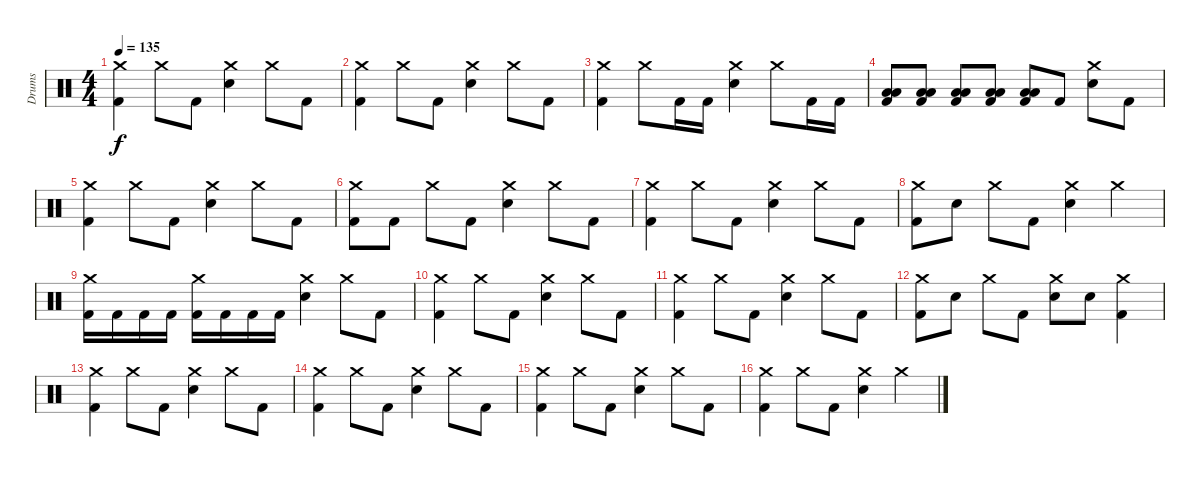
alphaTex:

\track ("Drums" "Drums") {instrument percussion}
\staff {score}
\articulation defaults
\ts (4 4)
\tempo 135
\clef neutral
\ks c
("Crash medium (hit)" "Kick (hit) 2").4{dy f} "Crash medium (hit)".8 "Kick (hit) 2".8 ("Crash medium (hit)" "Electric Snare (hit)").4 "Crash medium (hit)".8 "Kick (hit) 2".8 |
("Crash medium (hit)" "Kick (hit) 2").4 "Crash medium (hit)".8 "Kick (hit) 2".8 ("Crash medium (hit)" "Electric Snare (hit)").4 "Crash medium (hit)".8 "Kick (hit) 2".8 |
("Crash medium (hit)" "Kick (hit) 2").4 "Crash medium (hit)".8 "Kick (hit) 2".16 "Kick (hit) 2".16 ("Crash medium (hit)" "Electric Snare (hit)").4 "Crash medium (hit)".8 "Kick (hit) 2".16 "Kick (hit) 2".16 |
("Low Tom (hit)" "Low Floor Tom (hit)" "Kick (hit) 2").8 ("Low Tom (hit)" "Low Floor Tom (hit)" "Kick (hit) 2").8 ("Low Tom (hit)" "Low Floor Tom (hit)" "Kick (hit) 2").8 ("Low Tom (hit)" "Low Floor Tom (hit)" "Kick (hit) 2").8 ("Low Tom (hit)" "Low Floor Tom (hit)" "Kick (hit) 2").8 "Kick (hit) 2".8 ("Crash medium (hit)" "Electric Snare (hit)").8 "Kick (hit) 2".8 |
("Crash medium (hit)" "Kick (hit) 2").4 "Crash medium (hit)".8 "Kick (hit) 2".8 ("Crash medium (hit)" "Electric Snare (hit)").4 "Crash medium (hit)".8 "Kick (hit) 2".8 |
("Crash medium (hit)" "Kick (hit) 2").8 "Kick (hit) 2".8 "Crash medium (hit)".8 "Kick (hit) 2".8 ("Crash medium (hit)" "Electric Snare (hit)").4 "Crash medium (hit)".8 "Kick (hit) 2".8 |
("Crash medium (hit)" "Kick (hit) 2").4 "Crash medium (hit)".8 "Kick (hit) 2".8 ("Crash medium (hit)" "Electric Snare (hit)").4 "Crash medium (hit)".8 "Kick (hit) 2".8 |
("Crash medium (hit)" "Kick (hit) 2").8 "Electric Snare (hit)".8 "Crash medium (hit)".8 "Kick (hit) 2".8 ("Crash medium (hit)" "Electric Snare (hit)").4 "Crash medium (hit)".4 |
("Crash medium (hit)" "Kick (hit) 2").16 "Kick (hit) 2".16 "Kick (hit) 2".16 "Kick (hit) 2".16 ("Crash medium (hit)" "Kick (hit) 2").16 "Kick (hit) 2".16 "Kick (hit) 2".16 "Kick (hit) 2".16 ("Crash medium (hit)" "Electric Snare (hit)").4 "Crash medium (hit)".8 "Kick (hit) 2".8 |
("Crash medium (hit)" "Kick (hit) 2").4 "Crash medium (hit)".8 "Kick (hit) 2".8 ("Crash medium (hit)" "Electric Snare (hit)").4 "Crash medium (hit)".8 "Kick (hit) 2".8 |
("Crash medium (hit)" "Kick (hit) 2").4 "Crash medium (hit)".8 "Kick (hit) 2".8 ("Crash medium (hit)" "Electric Snare (hit)").4 "Crash medium (hit)".8 "Kick (hit) 2".8 |
("Crash medium (hit)" "Kick (hit) 2").8 "Electric Snare (hit)".8 "Crash medium (hit)".8 "Kick (hit) 2".8 ("Crash medium (hit)" "Electric Snare (hit)").8 "Electric Snare (hit)".8 ("Crash medium (hit)" "Kick (hit) 2").4 |
("Crash medium (hit)" "Kick (hit) 2").4 "Crash medium (hit)".8 "Kick (hit) 2".8 ("Crash medium (hit)" "Electric Snare (hit)").4 "Crash medium (hit)".8 "Kick (hit) 2".8 |
("Crash medium (hit)" "Kick (hit) 2").4 "Crash medium (hit)".8 "Kick (hit) 2".8 ("Crash medium (hit)" "Electric Snare (hit)").4 "Crash medium (hit)".8 "Kick (hit) 2".8 |
("Crash medium (hit)" "Kick (hit) 2").4 "Crash medium (hit)".8 "Kick (hit) 2".8 ("Crash medium (hit)" "Electric Snare (hit)").4 "Crash medium (hit)".8 "Kick (hit) 2".8 |
("Crash medium (hit)" "Kick (hit) 2").4 "Crash medium (hit)".8 "Kick (hit) 2".8 ("Crash medium (hit)" "Electric Snare (hit)").4 "Crash medium (hit)".4
